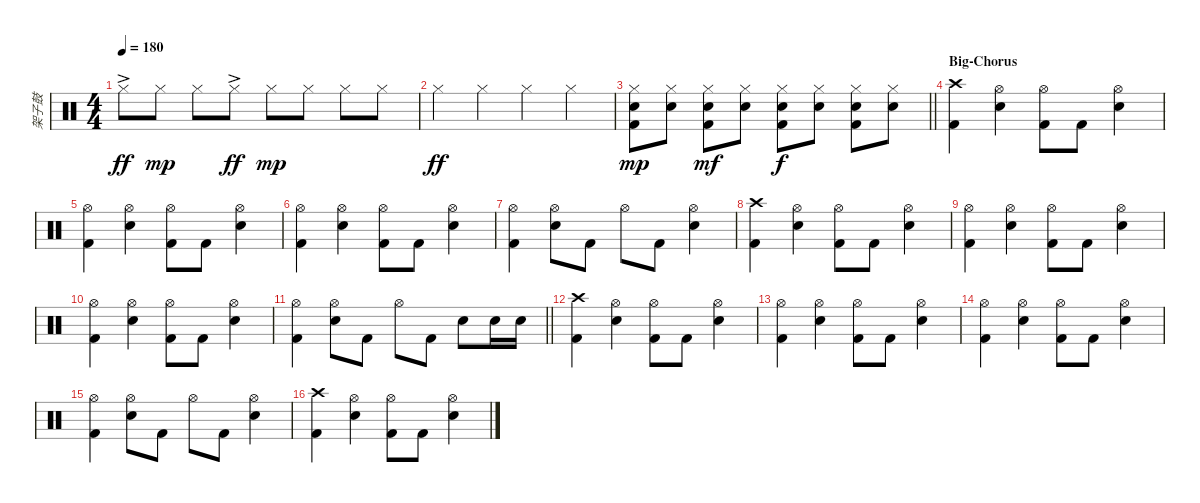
\track ("架子鼓" "架子鼓") {instrument percussion}
\staff {score}
\articulation defaults
\ts (4 4)
\tempo 180
\clef neutral
\ks c "Hi-Hat (closed)"{ac}.8{dy ff} "Hi-Hat (closed)".8{dy mp} "Hi-Hat (closed)".8 "Hi-Hat (closed)"{ac}.8{dy ff} "Hi-Hat (closed)".8{dy mp} "Hi-Hat (closed)".8 "Hi-Hat (closed)".8 "Hi-Hat (closed)".8
|
"Hi-Hat (closed)".4{dy ff} "Hi-Hat (closed)".4 "Hi-Hat (closed)".4 "Hi-Hat (closed)".4 |
\barLineRight lightlight
("Hi-Hat (closed)" "Snare (hit) 2" "Kick (hit) 2").8{dy mp} ("Hi-Hat (closed)" "Snare (hit) 2").8 ("Hi-Hat (closed)" "Snare (hit) 2" "Kick (hit) 2").8{dy mf} ("Hi-Hat (closed)" "Snare (hit) 2").8 ("Hi-Hat (closed)" "Snare (hit) 2" "Kick (hit) 2").8{dy f} ("Hi-Hat (closed)" "Snare (hit) 2").8 ("Hi-Hat (closed)" "Snare (hit) 2" "Kick (hit) 2").8 ("Hi-Hat (closed)" "Snare (hit) 2").8 |
\section ("" "Big-Chorus")
("Crash high (hit)" "Kick (hit) 2").4 ("Hi-Hat (open)" "Snare (hit) 2").4 ("Hi-Hat (open)" "Kick (hit) 2").8 "Kick (hit) 2".8 ("Hi-Hat (open)" "Snare (hit) 2").4 |
("Hi-Hat (open)" "Kick (hit) 2").4 ("Hi-Hat (open)" "Snare (hit) 2").4 ("Hi-Hat (open)" "Kick (hit) 2").8 "Kick (hit) 2".8 ("Hi-Hat (open)" "Snare (hit) 2").4 |
("Hi-Hat (open)" "Kick (hit) 2").4 ("Hi-Hat (open)" "Snare (hit) 2").4 ("Hi-Hat (open)" "Kick (hit) 2").8 "Kick (hit) 2".8 ("Hi-Hat (open)" "Snare (hit) 2").4 |
("Hi-Hat (open)" "Kick (hit) 2").4 ("Hi-Hat (open)" "Snare (hit) 2").8 "Kick (hit) 2".8 "Hi-Hat (open)".8 "Kick (hit) 2".8 ("Hi-Hat (open)" "Snare (hit) 2").4 |
("Crash high (hit)" "Kick (hit) 2").4 ("Hi-Hat (open)" "Snare (hit) 2").4 ("Hi-Hat (open)" "Kick (hit) 2").8 "Kick (hit) 2".8 ("Hi-Hat (open)" "Snare (hit) 2").4 |
("Hi-Hat (open)" "Kick (hit) 2").4 ("Hi-Hat (open)" "Snare (hit) 2").4 ("Hi-Hat (open)" "Kick (hit) 2").8 "Kick (hit) 2".8 ("Hi-Hat (open)" "Snare (hit) 2").4 |
("Hi-Hat (open)" "Kick (hit) 2").4 ("Hi-Hat (open)" "Snare (hit) 2").4 ("Hi-Hat (open)" "Kick (hit) 2").8 "Kick (hit) 2".8 ("Hi-Hat (open)" "Snare (hit) 2").4 |
\barLineRight lightlight
("Hi-Hat (open)" "Kick (hit) 2").4 ("Hi-Hat (open)" "Snare (hit) 2").8 "Kick (hit) 2".8 "Hi-Hat (open)".8 "Kick (hit) 2".8 "Snare (hit) 2".8 "Snare (hit) 2".16 "Snare (hit) 2".16 |
("Crash high (hit)" "Kick (hit) 2").4 ("Hi-Hat (open)" "Snare (hit) 2").4 ("Hi-Hat (open)" "Kick (hit) 2").8 "Kick (hit) 2".8 ("Hi-Hat (open)" "Snare (hit) 2").4 |
("Hi-Hat (open)" "Kick (hit) 2").4 ("Hi-Hat (open)" "Snare (hit) 2").4 ("Hi-Hat (open)" "Kick (hit) 2").8 "Kick (hit) 2".8 ("Hi-Hat (open)" "Snare (hit) 2").4 |
("Hi-Hat (open)" "Kick (hit) 2").4 ("Hi-Hat (open)" "Snare (hit) 2").4 ("Hi-Hat (open)" "Kick (hit) 2").8 "Kick (hit) 2".8 ("Hi-Hat (open)" "Snare (hit) 2").4 |
("Hi-Hat (open)" "Kick (hit) 2").4 ("Hi-Hat (open)" "Snare (hit) 2").8 "Kick (hit) 2".8 "Hi-Hat (open)".8 "Kick (hit) 2".8 ("Hi-Hat (open)" "Snare (hit) 2").4 |
("Crash high (hit)" "Kick (hit) 2").4 ("Hi-Hat (open)" "Snare (hit) 2").4 ("Hi-Hat (open)" "Kick (hit) 2").8 "Kick (hit) 2".8 ("Hi-Hat (open)" "Snare (hit) 2").4
